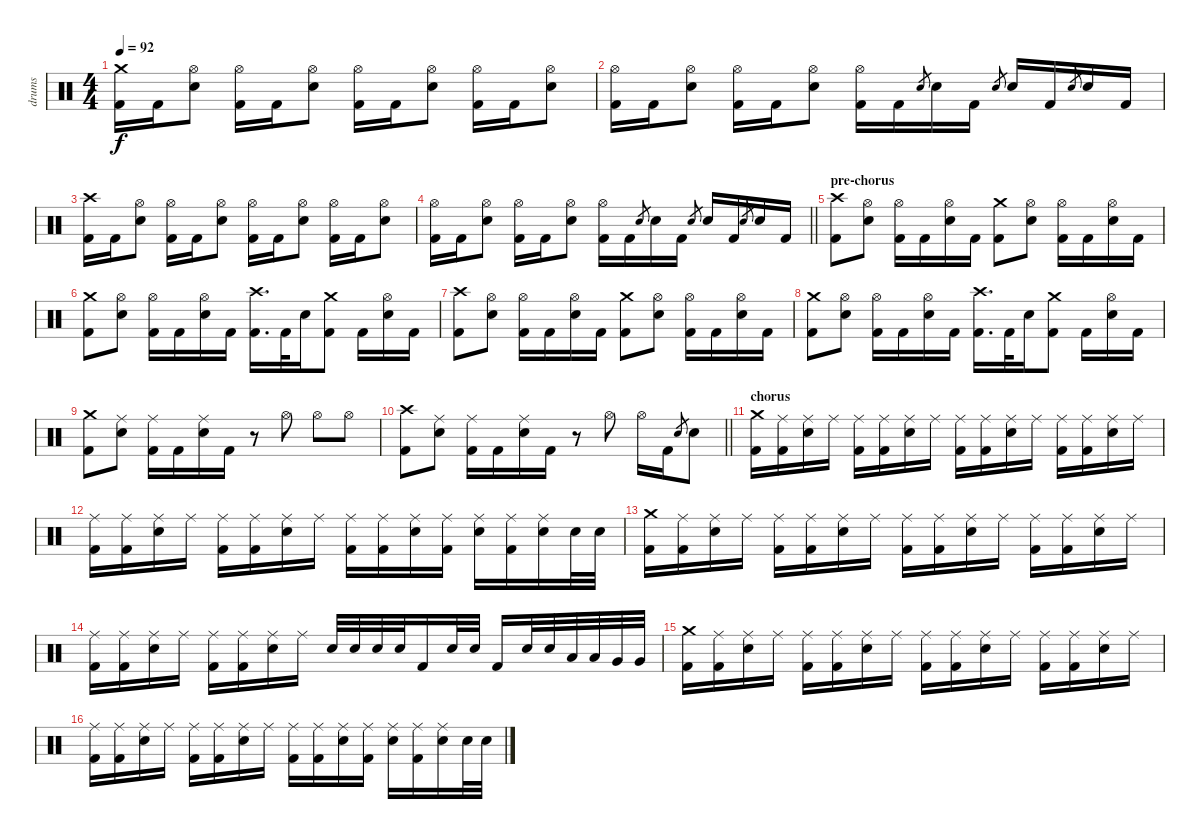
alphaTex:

\track ("drums" "drums") {instrument percussion}
\staff {score}
\articulation defaults
\ts (4 4)
\tempo 92
\clef neutral
\ks c
("Crash medium (hit)" "Kick (hit) 2").16{dy f} "Kick (hit) 2".16 ("Hi-Hat (open)" "Snare (hit) 2").8 ("Hi-Hat (open)" "Kick (hit) 2").16 "Kick (hit) 2".16 ("Hi-Hat (open)" "Snare (hit) 2").8 ("Hi-Hat (open)" "Kick (hit) 2").16 "Kick (hit) 2".16 ("Hi-Hat (open)" "Snare (hit) 2").8 ("Hi-Hat (open)" "Kick (hit) 2").16 "Kick (hit) 2".16 ("Hi-Hat (open)" "Snare (hit) 2").8 |
("Hi-Hat (open)" "Kick (hit) 2").16 "Kick (hit) 2".16 ("Hi-Hat (open)" "Snare (hit) 2").8 ("Hi-Hat (open)" "Kick (hit) 2").16 "Kick (hit) 2".16 ("Hi-Hat (open)" "Snare (hit) 2").8 ("Hi-Hat (open)" "Kick (hit) 2").16 "Kick (hit) 2".16 "Snare (hit) 2".8{gr} "Snare (hit) 2".16 "Kick (hit) 2".16 "Snare (hit) 2".8{gr} "Snare (hit) 2".16 "Kick (hit) 2".16 "Snare (hit) 2".8{gr} "Snare (hit) 2".16 "Kick (hit) 2".16 |
("Crash high (hit)" "Kick (hit) 2").16 "Kick (hit) 2".16 ("Hi-Hat (open)" "Snare (hit) 2").8 ("Hi-Hat (open)" "Kick (hit) 2").16 "Kick (hit) 2".16 ("Hi-Hat (open)" "Snare (hit) 2").8 ("Hi-Hat (open)" "Kick (hit) 2").16 "Kick (hit) 2".16 ("Hi-Hat (open)" "Snare (hit) 2").8 ("Hi-Hat (open)" "Kick (hit) 2").16 "Kick (hit) 2".16 ("Hi-Hat (open)" "Snare (hit) 2").8 |
\barLineRight lightlight
("Hi-Hat (open)" "Kick (hit) 2").16 "Kick (hit) 2".16 ("Hi-Hat (open)" "Snare (hit) 2").8 ("Hi-Hat (open)" "Kick (hit) 2").16 "Kick (hit) 2".16 ("Hi-Hat (open)" "Snare (hit) 2").8 ("Hi-Hat (open)" "Kick (hit) 2").16 "Kick (hit) 2".16 "Snare (hit) 2".8{gr} "Snare (hit) 2".16 "Kick (hit) 2".16 "Snare (hit) 2".8{gr} "Snare (hit) 2".16 "Kick (hit) 2".16 "Snare (hit) 2".8{gr} "Snare (hit) 2".16 "Kick (hit) 2".16 |
\section ("" "pre-chorus")
("Crash high (hit)" "Kick (hit) 2").8 ("Hi-Hat (open)" "Snare (hit) 2").8 ("Hi-Hat (open)" "Kick (hit) 2").16 "Kick (hit) 2".16 ("Hi-Hat (open)" "Snare (hit) 2").16 "Kick (hit) 2".16 ("Crash medium (hit)" "Kick (hit) 2").8 ("Hi-Hat (open)" "Snare (hit) 2").8 ("Hi-Hat (open)" "Kick (hit) 2").16 "Kick (hit) 2".16 ("Hi-Hat (open)" "Snare (hit) 2").16 "Kick (hit) 2".16 |
("Crash medium (hit)" "Kick (hit) 2").8 ("Hi-Hat (open)" "Snare (hit) 2").8 ("Hi-Hat (open)" "Kick (hit) 2").16 "Kick (hit) 2".16 ("Hi-Hat (open)" "Snare (hit) 2").16 "Kick (hit) 2".16 ("Crash high (hit)" "Kick (hit) 2").16{d} "Kick (hit) 2".32 "Snare (hit) 2".16 ("Crash medium (hit)" "Kick (hit) 2").8 "Kick (hit) 2".16 ("Hi-Hat (open)" "Snare (hit) 2").16 "Kick (hit) 2".16 |
("Crash high (hit)" "Kick (hit) 2").8 ("Hi-Hat (open)" "Snare (hit) 2").8 ("Hi-Hat (open)" "Kick (hit) 2").16 "Kick (hit) 2".16 ("Hi-Hat (open)" "Snare (hit) 2").16 "Kick (hit) 2".16 ("Crash medium (hit)" "Kick (hit) 2").8 ("Hi-Hat (open)" "Snare (hit) 2").8 ("Hi-Hat (open)" "Kick (hit) 2").16 "Kick (hit) 2".16 ("Hi-Hat (open)" "Snare (hit) 2").16 "Kick (hit) 2".16 |
("Crash medium (hit)" "Kick (hit) 2").8 ("Hi-Hat (open)" "Snare (hit) 2").8 ("Hi-Hat (open)" "Kick (hit) 2").16 "Kick (hit) 2".16 ("Hi-Hat (open)" "Snare (hit) 2").16 "Kick (hit) 2".16 ("Crash high (hit)" "Kick (hit) 2").16{d} "Kick (hit) 2".32 "Snare (hit) 2".16 ("Crash medium (hit)" "Kick (hit) 2").8 "Kick (hit) 2".16 ("Hi-Hat (open)" "Snare (hit) 2").16 "Kick (hit) 2".16 |
("Crash medium (hit)" "Kick (hit) 2").8 ("Ride (middle)" "Snare (hit) 2").8 ("Ride (middle)" "Kick (hit) 2").16 "Kick (hit) 2".16 ("Ride (middle)" "Snare (hit) 2").16 "Kick (hit) 2".16 r.8 "Hi-Hat (open)".8 "Hi-Hat (open)".8 "Hi-Hat (open)".8 |
\barLineRight lightlight
("Crash high (hit)" "Kick (hit) 2").8 ("Ride (middle)" "Snare (hit) 2").8 ("Ride (middle)" "Kick (hit) 2").16 "Kick (hit) 2".16 ("Ride (middle)" "Snare (hit) 2").16 "Kick (hit) 2".16 r.8 "Hi-Hat (open)".8 "Hi-Hat (open)".16 "Kick (hit) 2".16 "Snare (hit) 2".8{gr} "Snare (hit) 2".8 |
\section ("" "chorus")
("Crash medium (hit)" "Kick (hit) 2").16 ("Ride (middle)" "Kick (hit) 2").16 ("Ride (middle)" "Snare (hit) 2").16 "Ride (middle)".16 ("Ride (middle)" "Kick (hit) 2").16 ("Ride (middle)" "Kick (hit) 2").16 ("Ride (middle)" "Snare (hit) 2").16 "Ride (middle)".16 ("Ride (middle)" "Kick (hit) 2").16 ("Ride (middle)" "Kick (hit) 2").16 ("Ride (middle)" "Snare (hit) 2").16 "Ride (middle)".16 ("Ride (middle)" "Kick (hit) 2").16 ("Ride (middle)" "Kick (hit) 2").16 ("Ride (middle)" "Snare (hit) 2").16 "Ride (middle)".16 |
("Ride (middle)" "Kick (hit) 2").16 ("Ride (middle)" "Kick (hit) 2").16 ("Ride (middle)" "Snare (hit) 2").16 "Ride (middle)".16 ("Ride (middle)" "Kick (hit) 2").16 ("Ride (middle)" "Kick (hit) 2").16 ("Ride (middle)" "Snare (hit) 2").16 "Ride (middle)".16 ("Ride (middle)" "Kick (hit) 2").16 ("Ride (middle)" "Kick (hit) 2").16 ("Ride (middle)" "Snare (hit) 2").16 ("Ride (middle)" "Kick (hit) 2").16 ("Ride (middle)" "Snare (hit) 2").16 ("Ride (middle)" "Kick (hit) 2").16 ("Ride (middle)" "Snare (hit) 2").16 "Snare (hit) 2".32 "Snare (hit) 2".32 |
("Crash medium (hit)" "Kick (hit) 2").16 ("Ride (middle)" "Kick (hit) 2").16 ("Ride (middle)" "Snare (hit) 2").16 "Ride (middle)".16 ("Ride (middle)" "Kick (hit) 2").16 ("Ride (middle)" "Kick (hit) 2").16 ("Ride (middle)" "Snare (hit) 2").16 "Ride (middle)".16 ("Ride (middle)" "Kick (hit) 2").16 ("Ride (middle)" "Kick (hit) 2").16 ("Ride (middle)" "Snare (hit) 2").16 "Ride (middle)".16 ("Ride (middle)" "Kick (hit) 2").16 ("Ride (middle)" "Kick (hit) 2").16 ("Ride (middle)" "Snare (hit) 2").16 "Ride (middle)".16 |
("Ride (middle)" "Kick (hit) 2").16 ("Ride (middle)" "Kick (hit) 2").16 ("Ride (middle)" "Snare (hit) 2").16 "Ride (middle)".16 ("Ride (middle)" "Kick (hit) 2").16 ("Ride (middle)" "Kick (hit) 2").16 ("Ride (middle)" "Snare (hit) 2").16 "Ride (middle)".16 "Snare (hit) 2".32 "Snare (hit) 2".32 "Snare (hit) 2".32 "Snare (hit) 2".32 "Kick (hit) 2".16 "Snare (hit) 2".32 "Snare (hit) 2".32 "Kick (hit) 2".16 "Snare (hit) 2".32 "Snare (hit) 2".32 "Low Tom (hit)".32 "Low Tom (hit)".32 "Very Low Tom (hit)".32 "Very Low Tom (hit)".32 |
("Crash medium (hit)" "Kick (hit) 2").16 ("Ride (middle)" "Kick (hit) 2").16 ("Ride (middle)" "Snare (hit) 2").16 "Ride (middle)".16 ("Ride (middle)" "Kick (hit) 2").16 ("Ride (middle)" "Kick (hit) 2").16 ("Ride (middle)" "Snare (hit) 2").16 "Ride (middle)".16 ("Ride (middle)" "Kick (hit) 2").16 ("Ride (middle)" "Kick (hit) 2").16 ("Ride (middle)" "Snare (hit) 2").16 "Ride (middle)".16 ("Ride (middle)" "Kick (hit) 2").16 ("Ride (middle)" "Kick (hit) 2").16 ("Ride (middle)" "Snare (hit) 2").16 "Ride (middle)".16 |
("Ride (middle)" "Kick (hit) 2").16 ("Ride (middle)" "Kick (hit) 2").16 ("Ride (middle)" "Snare (hit) 2").16 "Ride (middle)".16 ("Ride (middle)" "Kick (hit) 2").16 ("Ride (middle)" "Kick (hit) 2").16 ("Ride (middle)" "Snare (hit) 2").16 "Ride (middle)".16 ("Ride (middle)" "Kick (hit) 2").16 ("Ride (middle)" "Kick (hit) 2").16 ("Ride (middle)" "Snare (hit) 2").16 ("Ride (middle)" "Kick (hit) 2").16 ("Ride (middle)" "Snare (hit) 2").16 ("Ride (middle)" "Kick (hit) 2").16 ("Ride (middle)" "Snare (hit) 2").16 "Snare (hit) 2".32 "Snare (hit) 2".32
